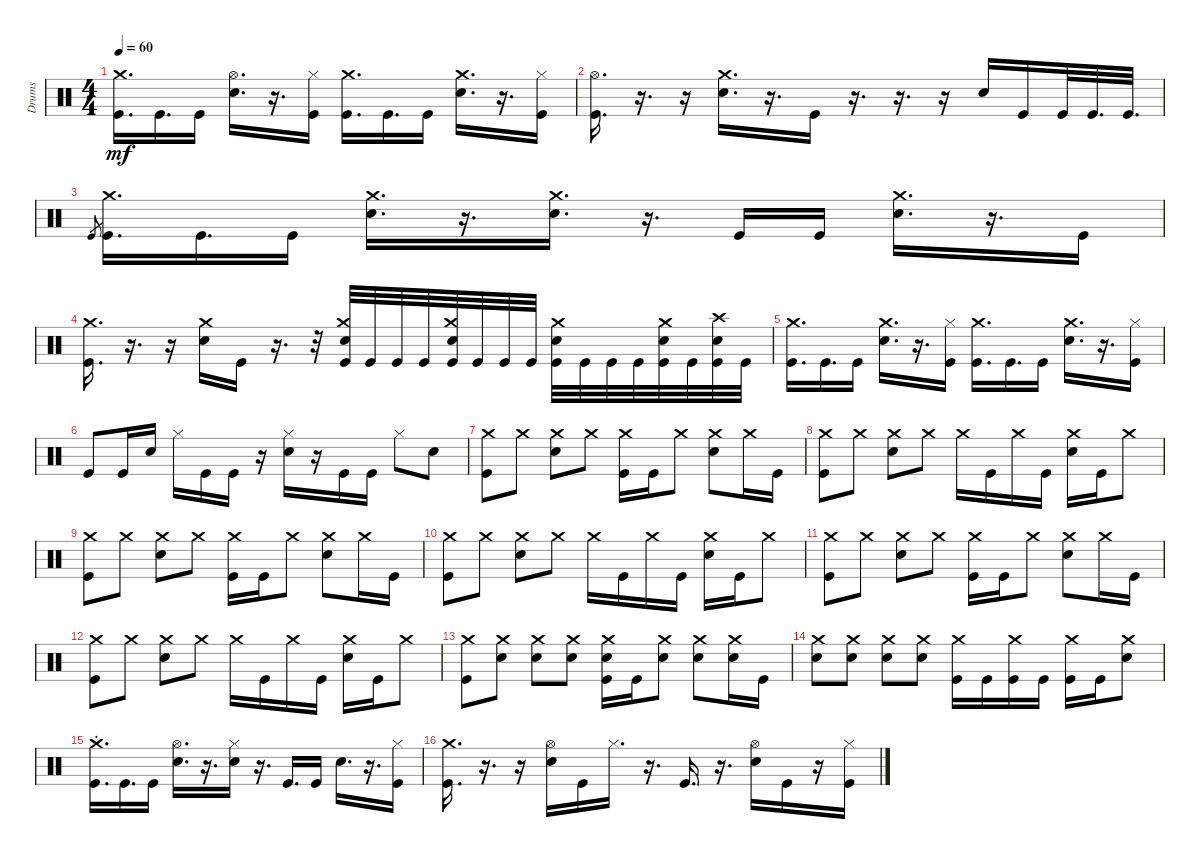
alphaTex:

\defaultSystemsLayout 4
\track ("Drums" "Drums") {instrument percussion}
\staff {score}
\articulation defaults
\ts (4 4)
\tempo 60
\clef neutral
\ks c
("Kick (hit)" "Crash medium (hit)").16{d dy mf} "Kick (hit)".16{d} "Kick (hit)".16 ("Snare (hit) 2" "Hi-Hat (open)").16{d} r.16{d} ("Hi-Hat (closed)" "Kick (hit)").16 ("Kick (hit)" "Crash medium (hit)").16{d} "Kick (hit)".16{d} "Kick (hit)".16 ("Crash medium (hit)" "Snare (hit) 2").16{d} r.16{d} ("Hi-Hat (closed)" "Kick (hit)").16 |
("Kick (hit)" "Hi-Hat (open)").16{d} r.16{d} r.16 ("Snare (hit) 2" "Crash medium (hit)").16{d} r.16{d} "Kick (hit)".16 r.16{d} r.16{d} r.16 "Snare (hit) 2".16 "Kick (hit)".16 "Kick (hit)".32 "Kick (hit)".32{d} "Kick (hit)".32{d} |
"Kick (hit)".8{gr} ("Kick (hit)" "Crash medium (hit)").16{d} "Kick (hit)".16{d} "Kick (hit)".16 ("Snare (hit) 2" "Crash medium (hit)").16{d} r.16{d} ("Crash medium (hit)" "Snare (hit) 2").16{d} r.16{d} "Kick (hit)".16 "Kick (hit)".16 ("Snare (hit) 2" "Crash medium (hit)").16{d} r.16{d} "Kick (hit)".16 |
("Kick (hit)" "Crash medium (hit)").16{d} r.16{d} r.16 ("Crash medium (hit)" "Snare (hit) 2").16 "Kick (hit)".16 r.16{d} r.32 ("Snare (hit) 2" "Crash medium (hit)" "Kick (hit)").32 "Kick (hit)".32 "Kick (hit)".32 "Kick (hit)".32 ("Snare (hit) 2" "Crash medium (hit)" "Kick (hit)").32 "Kick (hit)".32 "Kick (hit)".32 "Kick (hit)".32 ("Snare (hit) 2" "Crash medium (hit)" "Kick (hit)").32 "Kick (hit)".32 "Kick (hit)".32 "Kick (hit)".32 ("Snare (hit) 2" "Crash medium (hit)" "Kick (hit)").32 "Kick (hit)".32 ("Kick (hit)" "Snare (hit) 2" "Crash high (hit)").32 "Kick (hit)".32 |
("Kick (hit)" "Crash medium (hit)").16{d} "Kick (hit)".16{d} "Kick (hit)".16 ("Snare (hit) 2" "Crash medium (hit)").16{d} r.16{d} ("Hi-Hat (closed)" "Kick (hit)").16 ("Kick (hit)" "Crash medium (hit)").16{d} "Kick (hit)".16{d} "Kick (hit)".16 ("Snare (hit) 2" "Crash medium (hit)").16{d} r.16{d} ("Hi-Hat (closed)" "Kick (hit)").16 |
"Kick (hit)".8 "Kick (hit)".16 "Snare (hit) 2".16 "Hi-Hat (closed)".16 "Kick (hit)".16 "Kick (hit)".16 r.16 ("Snare (hit) 2" "Hi-Hat (closed)").16 r.16 "Kick (hit)".16 "Kick (hit)".16 "Hi-Hat (closed)".8 "Snare (hit) 2".8 |
("Kick (hit)" "Crash medium (hit)").8 "Crash medium (hit)".8 ("Crash medium (hit)" "Snare (hit) 2").8 "Crash medium (hit)".8 ("Crash medium (hit)" "Kick (hit)").16 "Kick (hit)".16 "Crash medium (hit)".8 ("Crash medium (hit)" "Snare (hit) 2").8 "Crash medium (hit)".16 "Kick (hit)".16 |
("Kick (hit)" "Crash medium (hit)").8 "Crash medium (hit)".8 ("Crash medium (hit)" "Snare (hit) 2").8 "Crash medium (hit)".8 "Crash medium (hit)".16 "Kick (hit)".16 "Crash medium (hit)".16 "Kick (hit)".16 ("Snare (hit) 2" "Crash medium (hit)").16 "Kick (hit)".16 "Crash medium (hit)".8 |
("Kick (hit)" "Crash medium (hit)").8 "Crash medium (hit)".8 ("Crash medium (hit)" "Snare (hit) 2").8 "Crash medium (hit)".8 ("Crash medium (hit)" "Kick (hit)").16 "Kick (hit)".16 "Crash medium (hit)".8 ("Crash medium (hit)" "Snare (hit) 2").8 "Crash medium (hit)".16 "Kick (hit)".16 |
("Kick (hit)" "Crash medium (hit)").8 "Crash medium (hit)".8 ("Crash medium (hit)" "Snare (hit) 2").8 "Crash medium (hit)".8 "Crash medium (hit)".16 "Kick (hit)".16 "Crash medium (hit)".16 "Kick (hit)".16 ("Snare (hit) 2" "Crash medium (hit)").16 "Kick (hit)".16 "Crash medium (hit)".8 |
("Kick (hit)" "Crash medium (hit)").8 "Crash medium (hit)".8 ("Crash medium (hit)" "Snare (hit) 2").8 "Crash medium (hit)".8 ("Crash medium (hit)" "Kick (hit)").16 "Kick (hit)".16 "Crash medium (hit)".8 ("Crash medium (hit)" "Snare (hit) 2").8 "Crash medium (hit)".16 "Kick (hit)".16 |
("Kick (hit)" "Crash medium (hit)").8 "Crash medium (hit)".8 ("Crash medium (hit)" "Snare (hit) 2").8 "Crash medium (hit)".8 "Crash medium (hit)".16 "Kick (hit)".16 "Crash medium (hit)".16 "Kick (hit)".16 ("Snare (hit) 2" "Crash medium (hit)").16 "Kick (hit)".16 "Crash medium (hit)".8 |
("Kick (hit)" "Crash medium (hit)").8 ("Crash medium (hit)" "Snare (hit) 2").8 ("Crash medium (hit)" "Snare (hit) 2").8 ("Crash medium (hit)" "Snare (hit) 2").8 ("Crash medium (hit)" "Kick (hit)" "Snare (hit) 2").16 "Kick (hit)".16 ("Crash medium (hit)" "Snare (hit) 2").8 ("Crash medium (hit)" "Snare (hit) 2").8 ("Crash medium (hit)" "Snare (hit) 2").16 "Kick (hit)".16 |
("Snare (hit) 2" "Crash medium (hit)").8 ("Snare (hit) 2" "Crash medium (hit)").8 ("Snare (hit) 2" "Crash medium (hit)").8 ("Snare (hit) 2" "Crash medium (hit)").8 ("Crash medium (hit)" "Kick (hit)").16 "Kick (hit)".16 ("Kick (hit)" "Crash medium (hit)").16 "Kick (hit)".16 ("Kick (hit)" "Crash medium (hit)").16 "Kick (hit)".16 ("Crash medium (hit)" "Snare (hit) 2").8 |
("Kick (hit)"{st} "Crash medium (hit)").16{d} "Kick (hit)".16{d} "Kick (hit)".16 ("Hi-Hat (open)" "Snare (hit) 2").16{d} r.16{d} ("Snare (hit) 2" "Hi-Hat (closed)").16 r.16{d} "Kick (hit)".16{d} "Kick (hit)".16 "Snare (hit) 2".16{d} r.16{d} ("Hi-Hat (closed)" "Kick (hit)").16 |
("Kick (hit)" "Crash medium (hit)").16{d} r.16{d} r.16 ("Hi-Hat (open)" "Snare (hit) 2").16 "Kick (hit)".16 "Hi-Hat (closed)".16{d} r.16{d} "Kick (hit)".16{d} r.16{d} ("Snare (hit) 2" "Hi-Hat (open)").16 "Kick (hit)".16 r.16 ("Kick (hit)" "Hi-Hat (closed)").16
